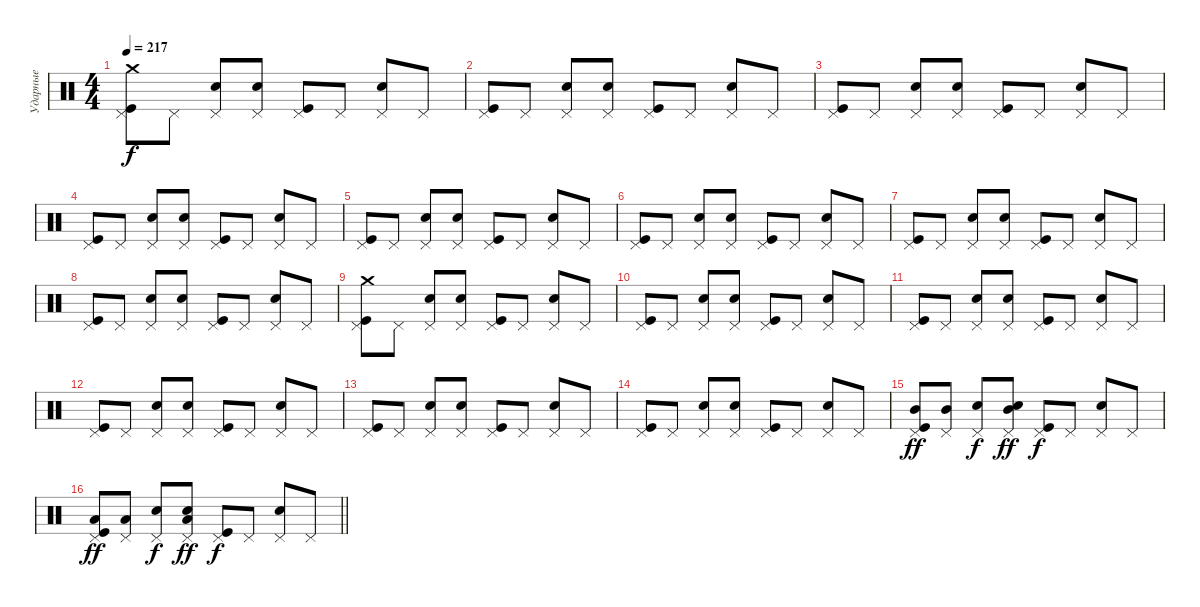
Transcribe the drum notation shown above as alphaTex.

\track ("Ударные" "Ударные") {instrument percussion}
\staff {score}
\articulation defaults
\ts (4 4)
\tempo 217
\clef neutral
\ks c
("Pedal Hi-Hat (hit)" "Kick (hit)" "Crash medium (hit)").8{dy f} "Pedal Hi-Hat (hit)".8 ("Pedal Hi-Hat (hit)" "Snare (hit) 2").8 ("Pedal Hi-Hat (hit)" "Snare (hit) 2").8 ("Pedal Hi-Hat (hit)" "Kick (hit)").8 "Pedal Hi-Hat (hit)".8 ("Pedal Hi-Hat (hit)" "Snare (hit) 2").8 "Pedal Hi-Hat (hit)".8 |
("Pedal Hi-Hat (hit)" "Kick (hit)").8 "Pedal Hi-Hat (hit)".8 ("Pedal Hi-Hat (hit)" "Snare (hit) 2").8 ("Pedal Hi-Hat (hit)" "Snare (hit) 2").8 ("Pedal Hi-Hat (hit)" "Kick (hit)").8 "Pedal Hi-Hat (hit)".8 ("Pedal Hi-Hat (hit)" "Snare (hit) 2").8 "Pedal Hi-Hat (hit)".8 |
("Pedal Hi-Hat (hit)" "Kick (hit)").8 "Pedal Hi-Hat (hit)".8 ("Pedal Hi-Hat (hit)" "Snare (hit) 2").8 ("Pedal Hi-Hat (hit)" "Snare (hit) 2").8 ("Pedal Hi-Hat (hit)" "Kick (hit)").8 "Pedal Hi-Hat (hit)".8 ("Pedal Hi-Hat (hit)" "Snare (hit) 2").8 "Pedal Hi-Hat (hit)".8 |
("Pedal Hi-Hat (hit)" "Kick (hit)").8 "Pedal Hi-Hat (hit)".8 ("Pedal Hi-Hat (hit)" "Snare (hit) 2").8 ("Pedal Hi-Hat (hit)" "Snare (hit) 2").8 ("Pedal Hi-Hat (hit)" "Kick (hit)").8 "Pedal Hi-Hat (hit)".8 ("Pedal Hi-Hat (hit)" "Snare (hit) 2").8 "Pedal Hi-Hat (hit)".8 |
("Pedal Hi-Hat (hit)" "Kick (hit)").8 "Pedal Hi-Hat (hit)".8 ("Pedal Hi-Hat (hit)" "Snare (hit) 2").8 ("Pedal Hi-Hat (hit)" "Snare (hit) 2").8 ("Pedal Hi-Hat (hit)" "Kick (hit)").8 "Pedal Hi-Hat (hit)".8 ("Pedal Hi-Hat (hit)" "Snare (hit) 2").8 "Pedal Hi-Hat (hit)".8 |
("Pedal Hi-Hat (hit)" "Kick (hit)").8 "Pedal Hi-Hat (hit)".8 ("Pedal Hi-Hat (hit)" "Snare (hit) 2").8 ("Pedal Hi-Hat (hit)" "Snare (hit) 2").8 ("Pedal Hi-Hat (hit)" "Kick (hit)").8 "Pedal Hi-Hat (hit)".8 ("Pedal Hi-Hat (hit)" "Snare (hit) 2").8 "Pedal Hi-Hat (hit)".8 |
("Pedal Hi-Hat (hit)" "Kick (hit)").8 "Pedal Hi-Hat (hit)".8 ("Pedal Hi-Hat (hit)" "Snare (hit) 2").8 ("Pedal Hi-Hat (hit)" "Snare (hit) 2").8 ("Pedal Hi-Hat (hit)" "Kick (hit)").8 "Pedal Hi-Hat (hit)".8 ("Pedal Hi-Hat (hit)" "Snare (hit) 2").8 "Pedal Hi-Hat (hit)".8 |
("Pedal Hi-Hat (hit)" "Kick (hit)").8 "Pedal Hi-Hat (hit)".8 ("Pedal Hi-Hat (hit)" "Snare (hit) 2").8 ("Pedal Hi-Hat (hit)" "Snare (hit) 2").8 ("Pedal Hi-Hat (hit)" "Kick (hit)").8 "Pedal Hi-Hat (hit)".8 ("Pedal Hi-Hat (hit)" "Snare (hit) 2").8 "Pedal Hi-Hat (hit)".8 |
("Pedal Hi-Hat (hit)" "Kick (hit)" "Crash medium (hit)").8 "Pedal Hi-Hat (hit)".8 ("Pedal Hi-Hat (hit)" "Snare (hit) 2").8 ("Pedal Hi-Hat (hit)" "Snare (hit) 2").8 ("Pedal Hi-Hat (hit)" "Kick (hit)").8 "Pedal Hi-Hat (hit)".8 ("Pedal Hi-Hat (hit)" "Snare (hit) 2").8 "Pedal Hi-Hat (hit)".8 |
("Pedal Hi-Hat (hit)" "Kick (hit)").8 "Pedal Hi-Hat (hit)".8 ("Pedal Hi-Hat (hit)" "Snare (hit) 2").8 ("Pedal Hi-Hat (hit)" "Snare (hit) 2").8 ("Pedal Hi-Hat (hit)" "Kick (hit)").8 "Pedal Hi-Hat (hit)".8 ("Pedal Hi-Hat (hit)" "Snare (hit) 2").8 "Pedal Hi-Hat (hit)".8 |
("Pedal Hi-Hat (hit)" "Kick (hit)").8 "Pedal Hi-Hat (hit)".8 ("Pedal Hi-Hat (hit)" "Snare (hit) 2").8 ("Pedal Hi-Hat (hit)" "Snare (hit) 2").8 ("Pedal Hi-Hat (hit)" "Kick (hit)").8 "Pedal Hi-Hat (hit)".8 ("Pedal Hi-Hat (hit)" "Snare (hit) 2").8 "Pedal Hi-Hat (hit)".8 |
("Pedal Hi-Hat (hit)" "Kick (hit)").8 "Pedal Hi-Hat (hit)".8 ("Pedal Hi-Hat (hit)" "Snare (hit) 2").8 ("Pedal Hi-Hat (hit)" "Snare (hit) 2").8 ("Pedal Hi-Hat (hit)" "Kick (hit)").8 "Pedal Hi-Hat (hit)".8 ("Pedal Hi-Hat (hit)" "Snare (hit) 2").8 "Pedal Hi-Hat (hit)".8 |
("Pedal Hi-Hat (hit)" "Kick (hit)").8 "Pedal Hi-Hat (hit)".8 ("Pedal Hi-Hat (hit)" "Snare (hit) 2").8 ("Pedal Hi-Hat (hit)" "Snare (hit) 2").8 ("Pedal Hi-Hat (hit)" "Kick (hit)").8 "Pedal Hi-Hat (hit)".8 ("Pedal Hi-Hat (hit)" "Snare (hit) 2").8 "Pedal Hi-Hat (hit)".8 |
("Pedal Hi-Hat (hit)" "Kick (hit)").8 "Pedal Hi-Hat (hit)".8 ("Pedal Hi-Hat (hit)" "Snare (hit) 2").8 ("Pedal Hi-Hat (hit)" "Snare (hit) 2").8 ("Pedal Hi-Hat (hit)" "Kick (hit)").8 "Pedal Hi-Hat (hit)".8 ("Pedal Hi-Hat (hit)" "Snare (hit) 2").8 "Pedal Hi-Hat (hit)".8 |
("Pedal Hi-Hat (hit)" "Kick (hit)" "Mid Tom (hit)").8{dy ff} ("Pedal Hi-Hat (hit)" "Mid Tom (hit)").8 ("Pedal Hi-Hat (hit)" "Snare (hit) 2").8{dy f} ("Pedal Hi-Hat (hit)" "Snare (hit) 2" "Mid Tom (hit)").8{dy ff} ("Pedal Hi-Hat (hit)" "Kick (hit)").8{dy f} "Pedal Hi-Hat (hit)".8 ("Pedal Hi-Hat (hit)" "Snare (hit) 2").8 "Pedal Hi-Hat (hit)".8 |
\barLineRight lightlight
("Pedal Hi-Hat (hit)" "Kick (hit)" "Low Tom (hit)").8{dy ff} ("Pedal Hi-Hat (hit)" "Low Tom (hit)").8 ("Pedal Hi-Hat (hit)" "Snare (hit) 2").8{dy f} ("Pedal Hi-Hat (hit)" "Snare (hit) 2" "Low Tom (hit)").8{dy ff} ("Pedal Hi-Hat (hit)" "Kick (hit)").8{dy f} "Pedal Hi-Hat (hit)".8 ("Pedal Hi-Hat (hit)" "Snare (hit) 2").8 "Pedal Hi-Hat (hit)".8
